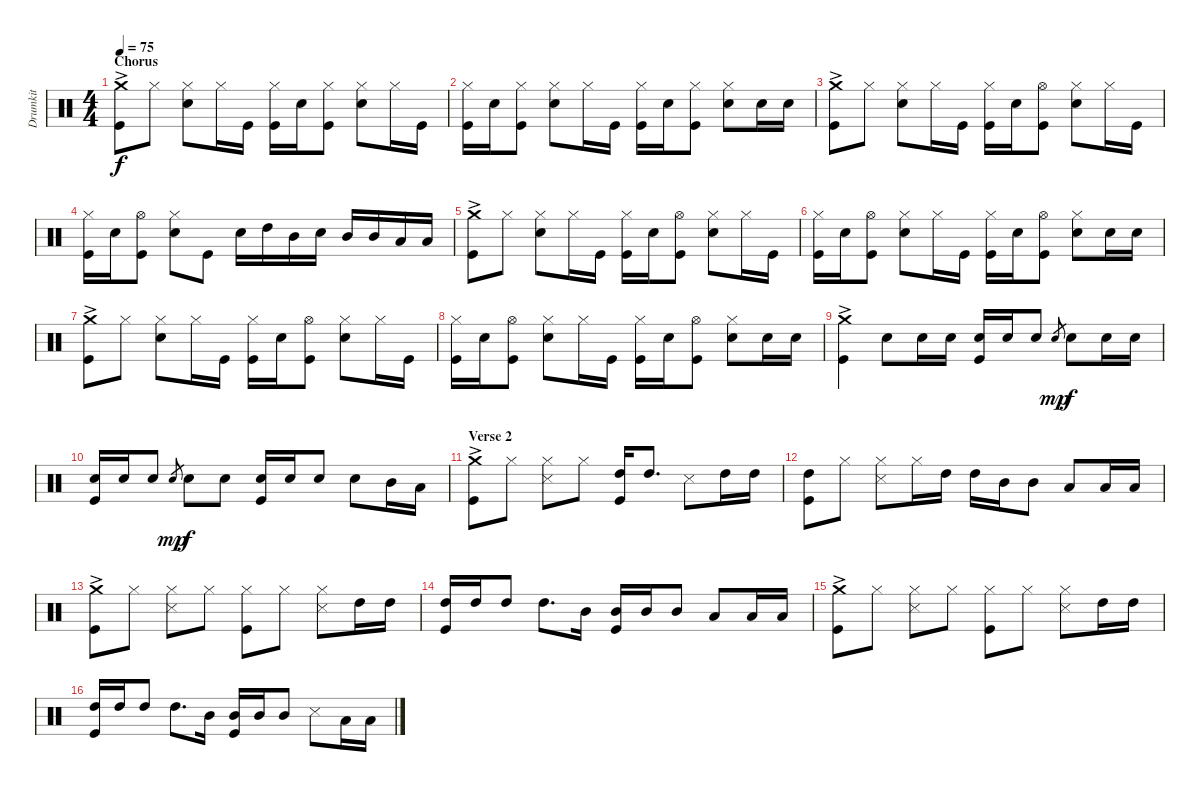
\track ("Drumkit" "Drumkit") {instrument percussion}
\staff {score}
\articulation defaults
\ts (4 4)
\section ("" "Chorus")
\tempo 75
\clef neutral
\ks c
("Crash medium (hit)"{ac} "Kick (hit)").8{dy f} "Hi-Hat (closed)".8 ("Hi-Hat (closed)" "Snare (hit) 2").8 "Hi-Hat (closed)".16 "Kick (hit)".16 ("Hi-Hat (closed)" "Kick (hit)").16 "Snare (hit) 2".16 ("Hi-Hat (closed)" "Kick (hit)").8 ("Hi-Hat (closed)" "Snare (hit) 2").8 "Hi-Hat (closed)".16 "Kick (hit)".16 |
("Hi-Hat (closed)" "Kick (hit)").16 "Snare (hit) 2".16 ("Hi-Hat (closed)" "Kick (hit)").8 ("Hi-Hat (closed)" "Snare (hit) 2").8 "Hi-Hat (closed)".16 "Kick (hit)".16 ("Hi-Hat (closed)" "Kick (hit)").16 "Snare (hit) 2".16 ("Hi-Hat (closed)" "Kick (hit)").8 ("Hi-Hat (closed)" "Snare (hit) 2").8 "Snare (hit) 2".16 "Snare (hit) 2".16 |
("Crash medium (hit)"{ac} "Kick (hit)").8 "Hi-Hat (closed)".8 ("Hi-Hat (closed)" "Snare (hit) 2").8 "Hi-Hat (closed)".16 "Kick (hit)".16 ("Hi-Hat (closed)" "Kick (hit)").16 "Snare (hit) 2".16 ("Hi-Hat (open)" "Kick (hit)").8 ("Hi-Hat (closed)" "Snare (hit) 2").8 "Hi-Hat (closed)".16 "Kick (hit)".16 |
("Hi-Hat (closed)" "Kick (hit)").16 "Snare (hit) 2".16 ("Hi-Hat (open)" "Kick (hit)").8 ("Hi-Hat (closed)" "Snare (hit) 2").8 "Kick (hit)".8 "Snare (hit) 2".16 "High Tom (hit)".16 "Mid Tom (hit)".16 "Snare (hit) 2".16 "Mid Tom (hit)".16 "Mid Tom (hit)".16 "Low Tom (hit)".16 "Low Tom (hit)".16 |
("Crash medium (hit)"{ac} "Kick (hit)").8 "Hi-Hat (closed)".8 ("Hi-Hat (closed)" "Snare (hit) 2").8 "Hi-Hat (closed)".16 "Kick (hit)".16 ("Hi-Hat (closed)" "Kick (hit)").16 "Snare (hit) 2".16 ("Hi-Hat (open)" "Kick (hit)").8 ("Hi-Hat (closed)" "Snare (hit) 2").8 "Hi-Hat (closed)".16 "Kick (hit)".16 |
("Hi-Hat (closed)" "Kick (hit)").16 "Snare (hit) 2".16 ("Hi-Hat (open)" "Kick (hit)").8 ("Hi-Hat (closed)" "Snare (hit) 2").8 "Hi-Hat (closed)".16 "Kick (hit)".16 ("Hi-Hat (closed)" "Kick (hit)").16 "Snare (hit) 2".16 ("Hi-Hat (open)" "Kick (hit)").8 ("Hi-Hat (closed)" "Snare (hit) 2").8 "Snare (hit) 2".16 "Snare (hit) 2".16 |
("Crash medium (hit)"{ac} "Kick (hit)").8 "Hi-Hat (closed)".8 ("Hi-Hat (closed)" "Snare (hit) 2").8 "Hi-Hat (closed)".16 "Kick (hit)".16 ("Hi-Hat (closed)" "Kick (hit)").16 "Snare (hit) 2".16 ("Hi-Hat (open)" "Kick (hit)").8 ("Hi-Hat (closed)" "Snare (hit) 2").8 "Hi-Hat (closed)".16 "Kick (hit)".16 |
("Hi-Hat (closed)" "Kick (hit)").16 "Snare (hit) 2".16 ("Hi-Hat (open)" "Kick (hit)").8 ("Hi-Hat (closed)" "Snare (hit) 2").8 "Hi-Hat (closed)".16 "Kick (hit)".16 ("Hi-Hat (closed)" "Kick (hit)").16 "Snare (hit) 2".16 ("Hi-Hat (open)" "Kick (hit)").8 ("Hi-Hat (closed)" "Snare (hit) 2").8 "Snare (hit) 2".16 "Snare (hit) 2".16 |
("Crash medium (hit)"{ac} "Kick (hit)").4 "Snare (hit) 2".8 "Snare (hit) 2".16 "Snare (hit) 2".16 ("Snare (hit) 2" "Kick (hit)").16 "Snare (hit) 2".16 "Snare (hit) 2".8 "Snare (hit)".8{gr dy mp} "Snare (hit) 2".8{dy f} "Snare (hit) 2".16 "Snare (hit) 2".16 |
("Snare (hit) 2" "Kick (hit)").16 "Snare (hit) 2".16 "Snare (hit) 2".8 "Snare (hit)".8{gr dy mp} "Snare (hit) 2".8{dy f} "Snare (hit) 2".8 ("Snare (hit) 2" "Kick (hit)").16 "Snare (hit) 2".16 "Snare (hit) 2".8 "Snare (hit) 2".8 "Mid Tom (hit)".16 "Low Tom (hit)".16 |
\section ("" "Verse 2")
("Crash medium (hit)"{ac} "Kick (hit)").8 "Hi-Hat (closed)".8 ("Hi-Hat (closed)" "Snare (side stick) 3").8 "Hi-Hat (closed)".8 ("High Tom (hit)" "Kick (hit)").16 "High Tom (hit)".8{d} "Snare (side stick) 3".8 "High Tom (hit)".16 "High Tom (hit)".16 |
("High Tom (hit)" "Kick (hit)").8 "Hi-Hat (closed)".8 ("Hi-Hat (closed)" "Snare (side stick) 3").8 "Hi-Hat (closed)".16 "High Tom (hit)".16 "High Tom (hit)".16 "Mid Tom (hit)".16 "Mid Tom (hit)".8 "Low Tom (hit)".8 "Low Tom (hit)".16 "Low Tom (hit)".16 |
("Crash medium (hit)"{ac} "Kick (hit)").8 "Hi-Hat (closed)".8 ("Hi-Hat (closed)" "Snare (side stick) 3").8 "Hi-Hat (closed)".8 ("Hi-Hat (closed)" "Kick (hit)").8 "Hi-Hat (closed)".8 ("Hi-Hat (closed)" "Snare (side stick) 3").8 "High Tom (hit)".16 "High Tom (hit)".16 |
("High Tom (hit)" "Kick (hit)").16 "High Tom (hit)".16 "High Tom (hit)".8 "High Tom (hit)".8{d} "Mid Tom (hit)".16 ("Mid Tom (hit)" "Kick (hit)").16 "Mid Tom (hit)".16 "Mid Tom (hit)".8 "Low Tom (hit)".8 "Low Tom (hit)".16 "Low Tom (hit)".16 |
("Crash medium (hit)"{ac} "Kick (hit)").8 "Hi-Hat (closed)".8 ("Hi-Hat (closed)" "Snare (side stick) 3").8 "Hi-Hat (closed)".8 ("Hi-Hat (closed)" "Kick (hit)").8 "Hi-Hat (closed)".8 ("Hi-Hat (closed)" "Snare (side stick) 3").8 "High Tom (hit)".16 "High Tom (hit)".16 |
("High Tom (hit)" "Kick (hit)").16 "High Tom (hit)".16 "High Tom (hit)".8 "High Tom (hit)".8{d} "Mid Tom (hit)".16 ("Mid Tom (hit)" "Kick (hit)").16 "Mid Tom (hit)".16 "Mid Tom (hit)".8 "Snare (side stick) 3".8 "Low Tom (hit)".16 "Low Tom (hit)".16
